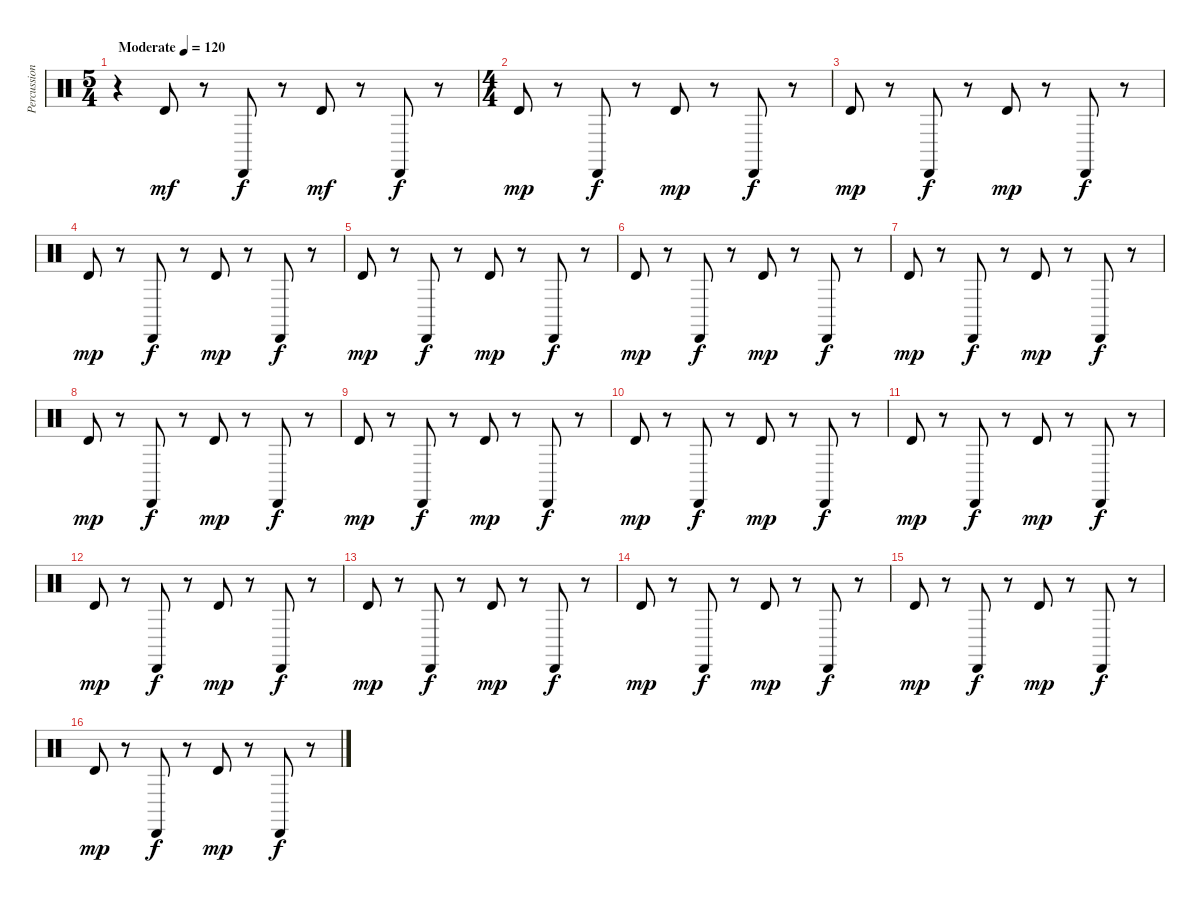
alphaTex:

\track ("Percussions" "Percussion") {instrument percussion}
\staff {score}
\articulation defaults
\ts (5 4)
\tempo (120 "Moderate")
\clef neutral
\ks c
r.4{dy mf} "Timbale high (hit)".8 r.8 "Cabasa (hit)".8{dy f} r.8 "Timbale high (hit)".8{dy mf} r.8 "Cabasa (hit)".8{dy f} r.8 |
\ts (4 4)
"Timbale high (hit)".8{dy mp} r.8 "Cabasa (hit)".8{dy f} r.8 "Timbale high (hit)".8{dy mp} r.8 "Cabasa (hit)".8{dy f} r.8 |
"Timbale high (hit)".8{dy mp} r.8 "Cabasa (hit)".8{dy f} r.8 "Timbale high (hit)".8{dy mp} r.8 "Cabasa (hit)".8{dy f} r.8 |
"Timbale high (hit)".8{dy mp} r.8 "Cabasa (hit)".8{dy f} r.8 "Timbale high (hit)".8{dy mp} r.8 "Cabasa (hit)".8{dy f} r.8 |
"Timbale high (hit)".8{dy mp} r.8 "Cabasa (hit)".8{dy f} r.8 "Timbale high (hit)".8{dy mp} r.8 "Cabasa (hit)".8{dy f} r.8 |
"Timbale high (hit)".8{dy mp} r.8 "Cabasa (hit)".8{dy f} r.8 "Timbale high (hit)".8{dy mp} r.8 "Cabasa (hit)".8{dy f} r.8 |
"Timbale high (hit)".8{dy mp} r.8 "Cabasa (hit)".8{dy f} r.8 "Timbale high (hit)".8{dy mp} r.8 "Cabasa (hit)".8{dy f} r.8 |
"Timbale high (hit)".8{dy mp} r.8 "Cabasa (hit)".8{dy f} r.8 "Timbale high (hit)".8{dy mp} r.8 "Cabasa (hit)".8{dy f} r.8 |
"Timbale high (hit)".8{dy mp} r.8 "Cabasa (hit)".8{dy f} r.8 "Timbale high (hit)".8{dy mp} r.8 "Cabasa (hit)".8{dy f} r.8 |
"Timbale high (hit)".8{dy mp} r.8 "Cabasa (hit)".8{dy f} r.8 "Timbale high (hit)".8{dy mp} r.8 "Cabasa (hit)".8{dy f} r.8 |
"Timbale high (hit)".8{dy mp} r.8 "Cabasa (hit)".8{dy f} r.8 "Timbale high (hit)".8{dy mp} r.8 "Cabasa (hit)".8{dy f} r.8 |
"Timbale high (hit)".8{dy mp} r.8 "Cabasa (hit)".8{dy f} r.8 "Timbale high (hit)".8{dy mp} r.8 "Cabasa (hit)".8{dy f} r.8 |
"Timbale high (hit)".8{dy mp} r.8 "Cabasa (hit)".8{dy f} r.8 "Timbale high (hit)".8{dy mp} r.8 "Cabasa (hit)".8{dy f} r.8 |
"Timbale high (hit)".8{dy mp} r.8 "Cabasa (hit)".8{dy f} r.8 "Timbale high (hit)".8{dy mp} r.8 "Cabasa (hit)".8{dy f} r.8 |
"Timbale high (hit)".8{dy mp} r.8 "Cabasa (hit)".8{dy f} r.8 "Timbale high (hit)".8{dy mp} r.8 "Cabasa (hit)".8{dy f} r.8 |
"Timbale high (hit)".8{dy mp} r.8 "Cabasa (hit)".8{dy f} r.8 "Timbale high (hit)".8{dy mp} r.8 "Cabasa (hit)".8{dy f} r.8
